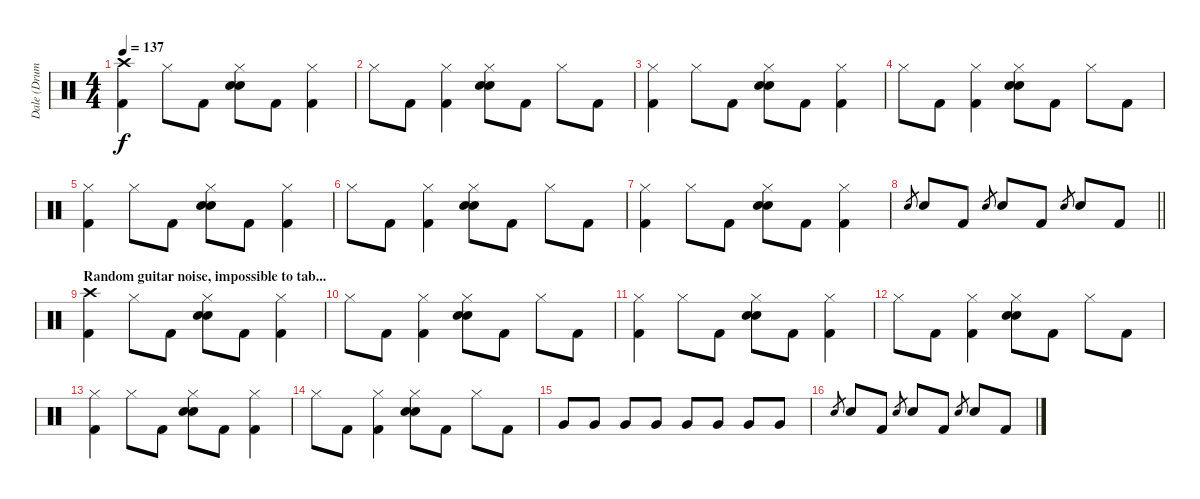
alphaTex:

\track ("Dale (Drums 1)" "Dale (Drum") {instrument percussion}
\staff {score}
\articulation defaults
\ts (4 4)
\tempo 137
\clef neutral
\ks c
("Crash high (hit)" "Kick (hit) 2").4{dy f} "Hi-Hat (closed)".8 "Kick (hit) 2".8 ("Hi-Hat (closed)" "Snare (hit) 2" "Electric Snare (hit)").8 "Kick (hit) 2".8 ("Kick (hit) 2" "Hi-Hat (closed)").4 |
"Hi-Hat (closed)".8 "Kick (hit) 2".8 ("Hi-Hat (closed)" "Kick (hit) 2").4 ("Hi-Hat (closed)" "Snare (hit) 2" "Electric Snare (hit)").8 "Kick (hit) 2".8 "Hi-Hat (closed)".8 "Kick (hit) 2".8 |
("Hi-Hat (closed)" "Kick (hit) 2").4 "Hi-Hat (closed)".8 "Kick (hit) 2".8 ("Hi-Hat (closed)" "Snare (hit) 2" "Electric Snare (hit)").8 "Kick (hit) 2".8 ("Kick (hit) 2" "Hi-Hat (closed)").4 |
"Hi-Hat (closed)".8 "Kick (hit) 2".8 ("Hi-Hat (closed)" "Kick (hit) 2").4 ("Hi-Hat (closed)" "Snare (hit) 2" "Electric Snare (hit)").8 "Kick (hit) 2".8 "Hi-Hat (closed)".8 "Kick (hit) 2".8 |
("Hi-Hat (closed)" "Kick (hit) 2").4 "Hi-Hat (closed)".8 "Kick (hit) 2".8 ("Hi-Hat (closed)" "Snare (hit) 2" "Electric Snare (hit)").8 "Kick (hit) 2".8 ("Kick (hit) 2" "Hi-Hat (closed)").4 |
"Hi-Hat (closed)".8 "Kick (hit) 2".8 ("Hi-Hat (closed)" "Kick (hit) 2").4 ("Hi-Hat (closed)" "Snare (hit) 2" "Electric Snare (hit)").8 "Kick (hit) 2".8 "Hi-Hat (closed)".8 "Kick (hit) 2".8 |
("Hi-Hat (closed)" "Kick (hit) 2").4 "Hi-Hat (closed)".8 "Kick (hit) 2".8 ("Hi-Hat (closed)" "Snare (hit) 2" "Electric Snare (hit)").8 "Kick (hit) 2".8 ("Kick (hit) 2" "Hi-Hat (closed)").4 |
\barLineRight lightlight "Snare (hit) 2".8{gr} "Snare (hit) 2".8 "Kick (hit) 2".8 "Snare (hit) 2".8{gr} "Snare (hit) 2".8 "Kick (hit) 2".8 "Snare (hit) 2".8{gr} "Snare (hit) 2".8 "Kick (hit) 2".8
|
\section ("" "Random guitar noise, impossible to tab...")
("Crash high (hit)" "Kick (hit) 2").4 "Hi-Hat (closed)".8 "Kick (hit) 2".8 ("Hi-Hat (closed)" "Snare (hit) 2" "Electric Snare (hit)").8 "Kick (hit) 2".8 ("Kick (hit) 2" "Hi-Hat (closed)").4 |
"Hi-Hat (closed)".8 "Kick (hit) 2".8 ("Hi-Hat (closed)" "Kick (hit) 2").4 ("Hi-Hat (closed)" "Snare (hit) 2" "Electric Snare (hit)").8 "Kick (hit) 2".8 "Hi-Hat (closed)".8 "Kick (hit) 2".8 |
("Hi-Hat (closed)" "Kick (hit) 2").4 "Hi-Hat (closed)".8 "Kick (hit) 2".8 ("Hi-Hat (closed)" "Snare (hit) 2" "Electric Snare (hit)").8 "Kick (hit) 2".8 ("Kick (hit) 2" "Hi-Hat (closed)").4 |
"Hi-Hat (closed)".8 "Kick (hit) 2".8 ("Hi-Hat (closed)" "Kick (hit) 2").4 ("Hi-Hat (closed)" "Snare (hit) 2" "Electric Snare (hit)").8 "Kick (hit) 2".8 "Hi-Hat (closed)".8 "Kick (hit) 2".8 |
("Hi-Hat (closed)" "Kick (hit) 2").4 "Hi-Hat (closed)".8 "Kick (hit) 2".8 ("Hi-Hat (closed)" "Snare (hit) 2" "Electric Snare (hit)").8 "Kick (hit) 2".8 ("Kick (hit) 2" "Hi-Hat (closed)").4 |
"Hi-Hat (closed)".8 "Kick (hit) 2".8 ("Hi-Hat (closed)" "Kick (hit) 2").4 ("Hi-Hat (closed)" "Snare (hit) 2" "Electric Snare (hit)").8 "Kick (hit) 2".8 "Hi-Hat (closed)".8 "Kick (hit) 2".8 |
"Very Low Tom (hit)".8 "Very Low Tom (hit)".8 "Very Low Tom (hit)".8 "Very Low Tom (hit)".8 "Very Low Tom (hit)".8 "Very Low Tom (hit)".8 "Very Low Tom (hit)".8 "Very Low Tom (hit)".8 |
"Snare (hit) 2".8{gr} "Snare (hit) 2".8 "Kick (hit) 2".8 "Snare (hit) 2".8{gr} "Snare (hit) 2".8 "Kick (hit) 2".8 "Snare (hit) 2".8{gr} "Snare (hit) 2".8 "Kick (hit) 2".8
